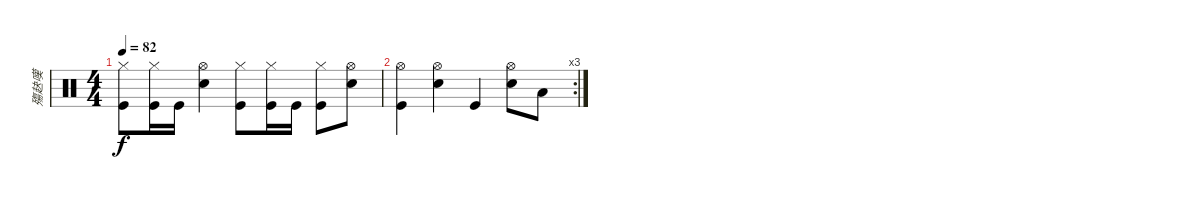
\track ("殤赽嘆" "殤赽嘆") {instrument percussion}
\staff {score}
\articulation defaults
\ts (4 4)
\tempo 82
\clef neutral
\ks c
("Hi-Hat (closed)" "Kick (hit)").8{dy f} ("Hi-Hat (closed)" "Kick (hit)").16 "Kick (hit)".16 ("Hi-Hat (open)" "Snare (hit) 2").4 ("Hi-Hat (closed)" "Kick (hit)").8 ("Hi-Hat (closed)" "Kick (hit)").16 "Kick (hit)".16 ("Hi-Hat (closed)" "Kick (hit)").8 ("Hi-Hat (open)" "Snare (hit) 2").8 |
\rc 3
("Hi-Hat (open)" "Kick (hit)").4 ("Hi-Hat (open)" "Snare (hit) 2").4 "Kick (hit)".4 ("Hi-Hat (open)" "Snare (hit) 2").8 "Low Tom (hit)".8
